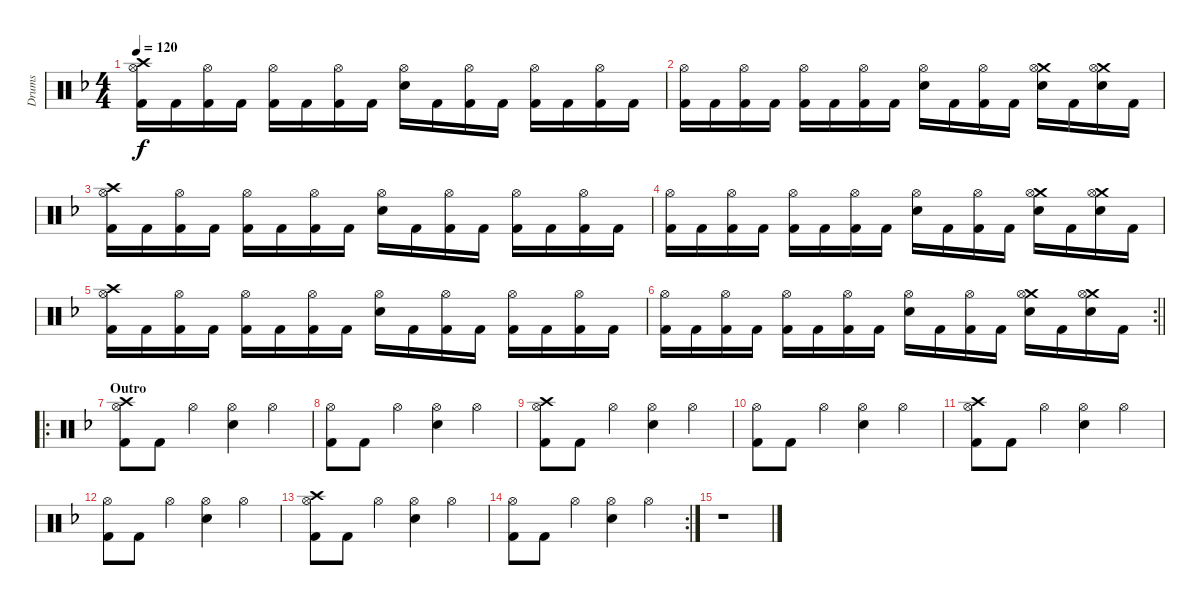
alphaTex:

\track ("Drums" "Drums") {instrument percussion}
\staff {score}
\articulation defaults
\ts (4 4)
\tempo 120
\clef neutral
\ks dminor
("Crash high (hit)" "Hi-Hat (open)" "Kick (hit) 2").16{dy f} "Kick (hit) 2".16 ("Hi-Hat (open)" "Kick (hit) 2").16 "Kick (hit) 2".16 ("Hi-Hat (open)" "Kick (hit) 2").16 "Kick (hit) 2".16 ("Hi-Hat (open)" "Kick (hit) 2").16 "Kick (hit) 2".16 ("Hi-Hat (open)" "Snare (hit) 2").16 "Kick (hit) 2".16 ("Hi-Hat (open)" "Kick (hit) 2").16 "Kick (hit) 2".16 ("Hi-Hat (open)" "Kick (hit) 2").16 "Kick (hit) 2".16 ("Hi-Hat (open)" "Kick (hit) 2").16 "Kick (hit) 2".16 |
("Hi-Hat (open)" "Kick (hit) 2").16 "Kick (hit) 2".16 ("Hi-Hat (open)" "Kick (hit) 2").16 "Kick (hit) 2".16 ("Hi-Hat (open)" "Kick (hit) 2").16 "Kick (hit) 2".16 ("Hi-Hat (open)" "Kick (hit) 2").16 "Kick (hit) 2".16 ("Hi-Hat (open)" "Snare (hit) 2").16 "Kick (hit) 2".16 ("Hi-Hat (open)" "Kick (hit) 2").16 "Kick (hit) 2".16 ("Crash medium (hit)" "Hi-Hat (open)" "Snare (hit) 2").16 "Kick (hit) 2".16 ("Crash medium (hit)" "Hi-Hat (open)" "Snare (hit) 2").16 "Kick (hit) 2".16 |
("Crash high (hit)" "Hi-Hat (open)" "Kick (hit) 2").16 "Kick (hit) 2".16 ("Hi-Hat (open)" "Kick (hit) 2").16 "Kick (hit) 2".16 ("Hi-Hat (open)" "Kick (hit) 2").16 "Kick (hit) 2".16 ("Hi-Hat (open)" "Kick (hit) 2").16 "Kick (hit) 2".16 ("Hi-Hat (open)" "Snare (hit) 2").16 "Kick (hit) 2".16 ("Hi-Hat (open)" "Kick (hit) 2").16 "Kick (hit) 2".16 ("Hi-Hat (open)" "Kick (hit) 2").16 "Kick (hit) 2".16 ("Hi-Hat (open)" "Kick (hit) 2").16 "Kick (hit) 2".16 |
("Hi-Hat (open)" "Kick (hit) 2").16 "Kick (hit) 2".16 ("Hi-Hat (open)" "Kick (hit) 2").16 "Kick (hit) 2".16 ("Hi-Hat (open)" "Kick (hit) 2").16 "Kick (hit) 2".16 ("Hi-Hat (open)" "Kick (hit) 2").16 "Kick (hit) 2".16 ("Hi-Hat (open)" "Snare (hit) 2").16 "Kick (hit) 2".16 ("Hi-Hat (open)" "Kick (hit) 2").16 "Kick (hit) 2".16 ("Crash medium (hit)" "Hi-Hat (open)" "Snare (hit) 2").16 "Kick (hit) 2".16 ("Crash medium (hit)" "Hi-Hat (open)" "Snare (hit) 2").16 "Kick (hit) 2".16 |
("Crash high (hit)" "Hi-Hat (open)" "Kick (hit) 2").16 "Kick (hit) 2".16 ("Hi-Hat (open)" "Kick (hit) 2").16 "Kick (hit) 2".16 ("Hi-Hat (open)" "Kick (hit) 2").16 "Kick (hit) 2".16 ("Hi-Hat (open)" "Kick (hit) 2").16 "Kick (hit) 2".16 ("Hi-Hat (open)" "Snare (hit) 2").16 "Kick (hit) 2".16 ("Hi-Hat (open)" "Kick (hit) 2").16 "Kick (hit) 2".16 ("Hi-Hat (open)" "Kick (hit) 2").16 "Kick (hit) 2".16 ("Hi-Hat (open)" "Kick (hit) 2").16 "Kick (hit) 2".16 |
\rc 2
\barLineRight lightlight
("Hi-Hat (open)" "Kick (hit) 2").16 "Kick (hit) 2".16 ("Hi-Hat (open)" "Kick (hit) 2").16 "Kick (hit) 2".16 ("Hi-Hat (open)" "Kick (hit) 2").16 "Kick (hit) 2".16 ("Hi-Hat (open)" "Kick (hit) 2").16 "Kick (hit) 2".16 ("Hi-Hat (open)" "Snare (hit) 2").16 "Kick (hit) 2".16 ("Hi-Hat (open)" "Kick (hit) 2").16 "Kick (hit) 2".16 ("Crash medium (hit)" "Hi-Hat (open)" "Snare (hit) 2").16 "Kick (hit) 2".16 ("Crash medium (hit)" "Hi-Hat (open)" "Snare (hit) 2").16 "Kick (hit) 2".16 |
\ro
\section ("" "Outro")
("Crash high (hit)" "Hi-Hat (open)" "Kick (hit) 2").8 "Kick (hit) 2".8 "Hi-Hat (open)".4 ("Hi-Hat (open)" "Snare (hit) 2").4 "Hi-Hat (open)".4 |
("Hi-Hat (open)" "Kick (hit) 2").8 "Kick (hit) 2".8 "Hi-Hat (open)".4 ("Hi-Hat (open)" "Snare (hit) 2").4 "Hi-Hat (open)".4 |
("Crash high (hit)" "Hi-Hat (open)" "Kick (hit) 2").8 "Kick (hit) 2".8 "Hi-Hat (open)".4 ("Hi-Hat (open)" "Snare (hit) 2").4 "Hi-Hat (open)".4 |
("Hi-Hat (open)" "Kick (hit) 2").8 "Kick (hit) 2".8 "Hi-Hat (open)".4 ("Hi-Hat (open)" "Snare (hit) 2").4 "Hi-Hat (open)".4 |
("Crash high (hit)" "Hi-Hat (open)" "Kick (hit) 2").8 "Kick (hit) 2".8 "Hi-Hat (open)".4 ("Hi-Hat (open)" "Snare (hit) 2").4 "Hi-Hat (open)".4 |
("Hi-Hat (open)" "Kick (hit) 2").8 "Kick (hit) 2".8 "Hi-Hat (open)".4 ("Hi-Hat (open)" "Snare (hit) 2").4 "Hi-Hat (open)".4 |
("Crash high (hit)" "Hi-Hat (open)" "Kick (hit) 2").8 "Kick (hit) 2".8 "Hi-Hat (open)".4 ("Hi-Hat (open)" "Snare (hit) 2").4 "Hi-Hat (open)".4 |
\rc 2
("Hi-Hat (open)" "Kick (hit) 2").8 "Kick (hit) 2".8 "Hi-Hat (open)".4 ("Hi-Hat (open)" "Snare (hit) 2").4 "Hi-Hat (open)".4 |
r.1
